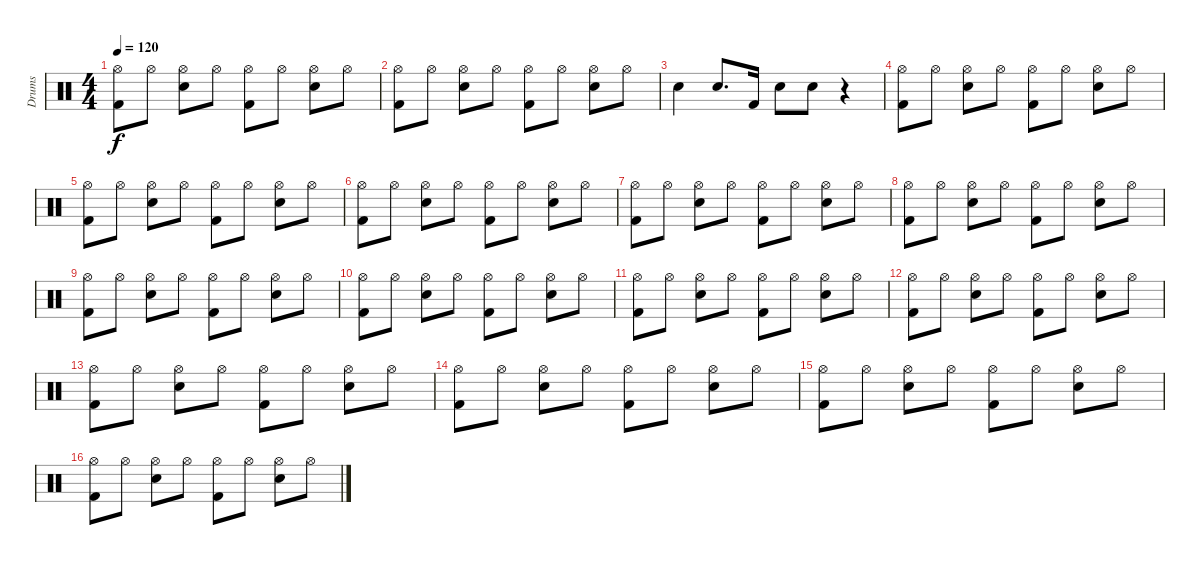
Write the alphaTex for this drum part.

\track ("Drums" "Drums") {instrument percussion}
\staff {score}
\articulation defaults
\ts (4 4)
\tempo 120
\clef neutral
\ks c
("Hi-Hat (open)" "Kick (hit) 2").8{dy f} "Hi-Hat (open)".8 ("Hi-Hat (open)" "Snare (hit) 2").8 "Hi-Hat (open)".8 ("Hi-Hat (open)" "Kick (hit) 2").8 "Hi-Hat (open)".8 ("Hi-Hat (open)" "Snare (hit) 2").8 "Hi-Hat (open)".8 |
("Hi-Hat (open)" "Kick (hit) 2").8 "Hi-Hat (open)".8 ("Hi-Hat (open)" "Snare (hit) 2").8 "Hi-Hat (open)".8 ("Hi-Hat (open)" "Kick (hit) 2").8 "Hi-Hat (open)".8 ("Hi-Hat (open)" "Snare (hit) 2").8 "Hi-Hat (open)".8 |
"Snare (hit) 2".4 "Snare (hit) 2".8{d} "Kick (hit) 2".16 "Snare (hit) 2".8 "Snare (hit) 2".8 r.4 |
("Hi-Hat (open)" "Kick (hit) 2").8 "Hi-Hat (open)".8 ("Hi-Hat (open)" "Snare (hit) 2").8 "Hi-Hat (open)".8 ("Hi-Hat (open)" "Kick (hit) 2").8 "Hi-Hat (open)".8 ("Hi-Hat (open)" "Snare (hit) 2").8 "Hi-Hat (open)".8 |
("Hi-Hat (open)" "Kick (hit) 2").8 "Hi-Hat (open)".8 ("Hi-Hat (open)" "Snare (hit) 2").8 "Hi-Hat (open)".8 ("Hi-Hat (open)" "Kick (hit) 2").8 "Hi-Hat (open)".8 ("Hi-Hat (open)" "Snare (hit) 2").8 "Hi-Hat (open)".8 |
("Hi-Hat (open)" "Kick (hit) 2").8 "Hi-Hat (open)".8 ("Hi-Hat (open)" "Snare (hit) 2").8 "Hi-Hat (open)".8 ("Hi-Hat (open)" "Kick (hit) 2").8 "Hi-Hat (open)".8 ("Hi-Hat (open)" "Snare (hit) 2").8 "Hi-Hat (open)".8 |
("Hi-Hat (open)" "Kick (hit) 2").8 "Hi-Hat (open)".8 ("Hi-Hat (open)" "Snare (hit) 2").8 "Hi-Hat (open)".8 ("Hi-Hat (open)" "Kick (hit) 2").8 "Hi-Hat (open)".8 ("Hi-Hat (open)" "Snare (hit) 2").8 "Hi-Hat (open)".8 |
("Hi-Hat (open)" "Kick (hit) 2").8 "Hi-Hat (open)".8 ("Hi-Hat (open)" "Snare (hit) 2").8 "Hi-Hat (open)".8 ("Hi-Hat (open)" "Kick (hit) 2").8 "Hi-Hat (open)".8 ("Hi-Hat (open)" "Snare (hit) 2").8 "Hi-Hat (open)".8 |
("Hi-Hat (open)" "Kick (hit) 2").8 "Hi-Hat (open)".8 ("Hi-Hat (open)" "Snare (hit) 2").8 "Hi-Hat (open)".8 ("Hi-Hat (open)" "Kick (hit) 2").8 "Hi-Hat (open)".8 ("Hi-Hat (open)" "Snare (hit) 2").8 "Hi-Hat (open)".8 |
("Hi-Hat (open)" "Kick (hit) 2").8 "Hi-Hat (open)".8 ("Hi-Hat (open)" "Snare (hit) 2").8 "Hi-Hat (open)".8 ("Hi-Hat (open)" "Kick (hit) 2").8 "Hi-Hat (open)".8 ("Hi-Hat (open)" "Snare (hit) 2").8 "Hi-Hat (open)".8 |
("Hi-Hat (open)" "Kick (hit) 2").8 "Hi-Hat (open)".8 ("Hi-Hat (open)" "Snare (hit) 2").8 "Hi-Hat (open)".8 ("Hi-Hat (open)" "Kick (hit) 2").8 "Hi-Hat (open)".8 ("Hi-Hat (open)" "Snare (hit) 2").8 "Hi-Hat (open)".8 |
("Hi-Hat (open)" "Kick (hit) 2").8 "Hi-Hat (open)".8 ("Hi-Hat (open)" "Snare (hit) 2").8 "Hi-Hat (open)".8 ("Hi-Hat (open)" "Kick (hit) 2").8 "Hi-Hat (open)".8 ("Hi-Hat (open)" "Snare (hit) 2").8 "Hi-Hat (open)".8 |
("Hi-Hat (open)" "Kick (hit) 2").8 "Hi-Hat (open)".8 ("Hi-Hat (open)" "Snare (hit) 2").8 "Hi-Hat (open)".8 ("Hi-Hat (open)" "Kick (hit) 2").8 "Hi-Hat (open)".8 ("Hi-Hat (open)" "Snare (hit) 2").8 "Hi-Hat (open)".8 |
("Hi-Hat (open)" "Kick (hit) 2").8 "Hi-Hat (open)".8 ("Hi-Hat (open)" "Snare (hit) 2").8 "Hi-Hat (open)".8 ("Hi-Hat (open)" "Kick (hit) 2").8 "Hi-Hat (open)".8 ("Hi-Hat (open)" "Snare (hit) 2").8 "Hi-Hat (open)".8 |
("Hi-Hat (open)" "Kick (hit) 2").8 "Hi-Hat (open)".8 ("Hi-Hat (open)" "Snare (hit) 2").8 "Hi-Hat (open)".8 ("Hi-Hat (open)" "Kick (hit) 2").8 "Hi-Hat (open)".8 ("Hi-Hat (open)" "Snare (hit) 2").8 "Hi-Hat (open)".8 |
("Hi-Hat (open)" "Kick (hit) 2").8 "Hi-Hat (open)".8 ("Hi-Hat (open)" "Snare (hit) 2").8 "Hi-Hat (open)".8 ("Hi-Hat (open)" "Kick (hit) 2").8 "Hi-Hat (open)".8 ("Hi-Hat (open)" "Snare (hit) 2").8 "Hi-Hat (open)".8
